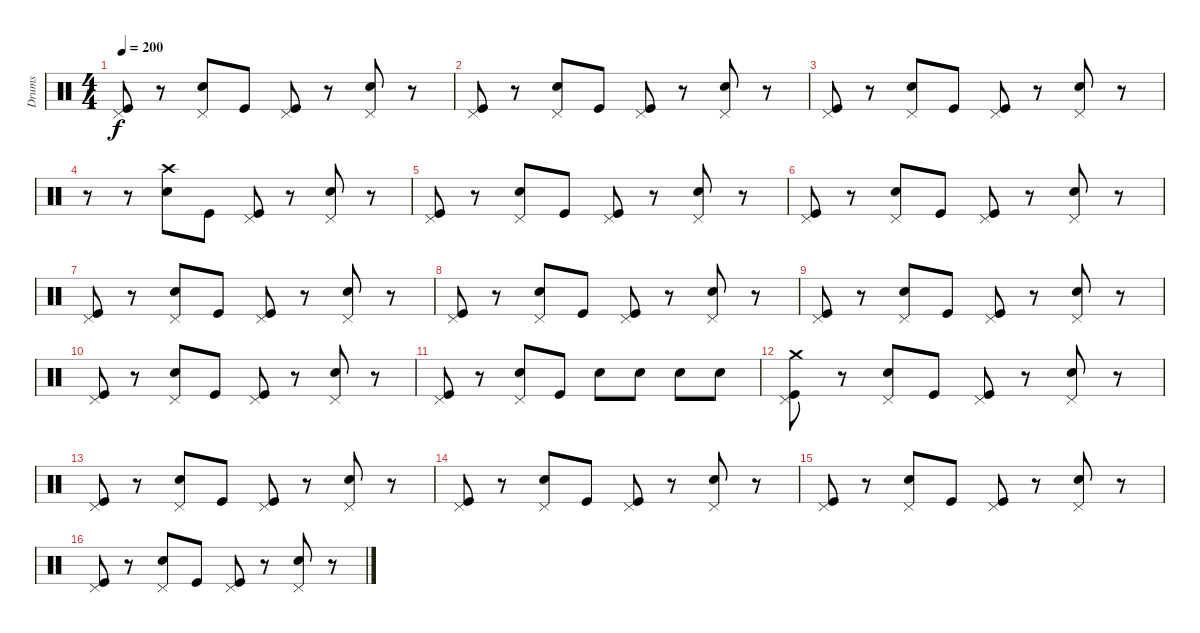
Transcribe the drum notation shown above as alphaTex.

\track ("Drums" "Drums") {instrument percussion}
\staff {score}
\articulation defaults
\ts (4 4)
\tempo 200
\clef neutral
\ks c
("Pedal Hi-Hat (hit)" "Kick (hit)").8{dy f} r.8 ("Pedal Hi-Hat (hit)" "Snare (hit) 2").8 "Kick (hit)".8 ("Pedal Hi-Hat (hit)" "Kick (hit)").8 r.8 ("Pedal Hi-Hat (hit)" "Snare (hit) 2").8 r.8 |
("Pedal Hi-Hat (hit)" "Kick (hit)").8 r.8 ("Pedal Hi-Hat (hit)" "Snare (hit) 2").8 "Kick (hit)".8 ("Pedal Hi-Hat (hit)" "Kick (hit)").8 r.8 ("Pedal Hi-Hat (hit)" "Snare (hit) 2").8 r.8 |
("Pedal Hi-Hat (hit)" "Kick (hit)").8 r.8 ("Pedal Hi-Hat (hit)" "Snare (hit) 2").8 "Kick (hit)".8 ("Pedal Hi-Hat (hit)" "Kick (hit)").8 r.8 ("Pedal Hi-Hat (hit)" "Snare (hit) 2").8 r.8 |
r.8 r.8 ("Crash high (hit)" "Snare (hit) 2").8 "Kick (hit)".8 ("Pedal Hi-Hat (hit)" "Kick (hit)").8 r.8 ("Pedal Hi-Hat (hit)" "Snare (hit) 2").8 r.8 |
("Pedal Hi-Hat (hit)" "Kick (hit)").8 r.8 ("Pedal Hi-Hat (hit)" "Snare (hit) 2").8 "Kick (hit)".8 ("Pedal Hi-Hat (hit)" "Kick (hit)").8 r.8 ("Pedal Hi-Hat (hit)" "Snare (hit) 2").8 r.8 |
("Pedal Hi-Hat (hit)" "Kick (hit)").8 r.8 ("Pedal Hi-Hat (hit)" "Snare (hit) 2").8 "Kick (hit)".8 ("Pedal Hi-Hat (hit)" "Kick (hit)").8 r.8 ("Pedal Hi-Hat (hit)" "Snare (hit) 2").8 r.8 |
("Pedal Hi-Hat (hit)" "Kick (hit)").8 r.8 ("Pedal Hi-Hat (hit)" "Snare (hit) 2").8 "Kick (hit)".8 ("Pedal Hi-Hat (hit)" "Kick (hit)").8 r.8 ("Pedal Hi-Hat (hit)" "Snare (hit) 2").8 r.8 |
("Pedal Hi-Hat (hit)" "Kick (hit)").8 r.8 ("Pedal Hi-Hat (hit)" "Snare (hit) 2").8 "Kick (hit)".8 ("Pedal Hi-Hat (hit)" "Kick (hit)").8 r.8 ("Pedal Hi-Hat (hit)" "Snare (hit) 2").8 r.8 |
("Pedal Hi-Hat (hit)" "Kick (hit)").8 r.8 ("Pedal Hi-Hat (hit)" "Snare (hit) 2").8 "Kick (hit)".8 ("Pedal Hi-Hat (hit)" "Kick (hit)").8 r.8 ("Pedal Hi-Hat (hit)" "Snare (hit) 2").8 r.8 |
("Pedal Hi-Hat (hit)" "Kick (hit)").8 r.8 ("Pedal Hi-Hat (hit)" "Snare (hit) 2").8 "Kick (hit)".8 ("Pedal Hi-Hat (hit)" "Kick (hit)").8 r.8 ("Pedal Hi-Hat (hit)" "Snare (hit) 2").8 r.8 |
("Pedal Hi-Hat (hit)" "Kick (hit)").8 r.8 ("Pedal Hi-Hat (hit)" "Snare (hit) 2").8 "Kick (hit)".8 "Snare (hit) 2".8 "Snare (hit) 2".8 "Snare (hit) 2".8 "Snare (hit) 2".8 |
("Pedal Hi-Hat (hit)" "Crash medium (hit)" "Kick (hit)").8 r.8 ("Pedal Hi-Hat (hit)" "Snare (hit) 2").8 "Kick (hit)".8 ("Pedal Hi-Hat (hit)" "Kick (hit)").8 r.8 ("Pedal Hi-Hat (hit)" "Snare (hit) 2").8 r.8 |
("Pedal Hi-Hat (hit)" "Kick (hit)").8 r.8 ("Pedal Hi-Hat (hit)" "Snare (hit) 2").8 "Kick (hit)".8 ("Pedal Hi-Hat (hit)" "Kick (hit)").8 r.8 ("Pedal Hi-Hat (hit)" "Snare (hit) 2").8 r.8 |
("Pedal Hi-Hat (hit)" "Kick (hit)").8 r.8 ("Pedal Hi-Hat (hit)" "Snare (hit) 2").8 "Kick (hit)".8 ("Pedal Hi-Hat (hit)" "Kick (hit)").8 r.8 ("Pedal Hi-Hat (hit)" "Snare (hit) 2").8 r.8 |
("Pedal Hi-Hat (hit)" "Kick (hit)").8 r.8 ("Pedal Hi-Hat (hit)" "Snare (hit) 2").8 "Kick (hit)".8 ("Pedal Hi-Hat (hit)" "Kick (hit)").8 r.8 ("Pedal Hi-Hat (hit)" "Snare (hit) 2").8 r.8 |
("Pedal Hi-Hat (hit)" "Kick (hit)").8 r.8 ("Pedal Hi-Hat (hit)" "Snare (hit) 2").8 "Kick (hit)".8 ("Pedal Hi-Hat (hit)" "Kick (hit)").8 r.8 ("Pedal Hi-Hat (hit)" "Snare (hit) 2").8 r.8
